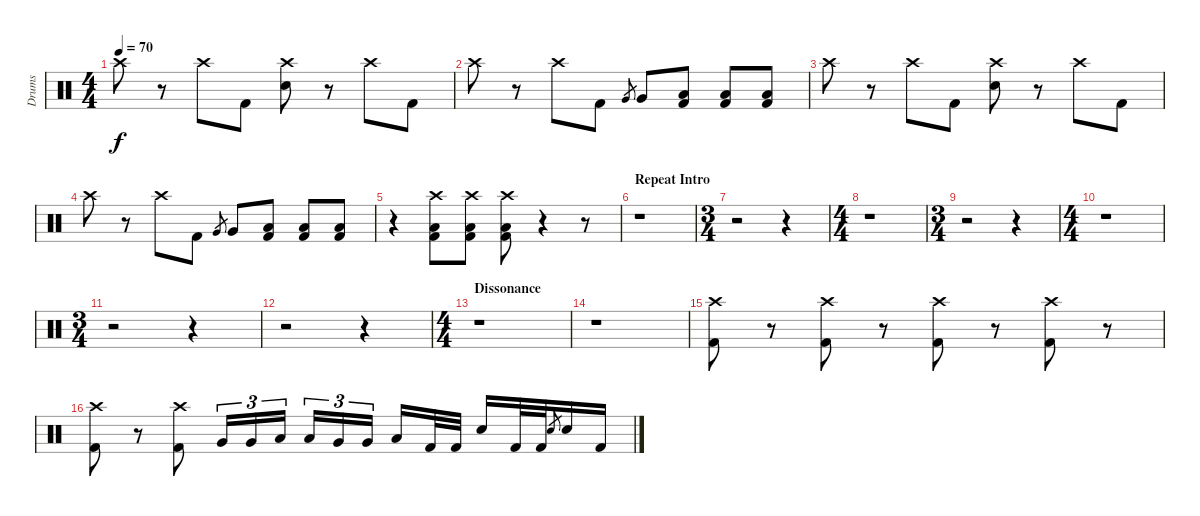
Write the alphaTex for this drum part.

\track ("Drums" "Drums") {instrument percussion}
\staff {score}
\articulation defaults
\ts (4 4)
\tempo 70
\clef neutral
\ks c "Crash high (hit)".8{dy f}
r.8 "Crash high (hit)".8 "Kick (hit) 2".8 ("Crash high (hit)" "Electric Snare (hit)").8 r.8 "Crash high (hit)".8 "Kick (hit) 2".8 |
"Crash high (hit)".8 r.8 "Crash high (hit)".8 "Kick (hit) 2".8 "Very Low Tom (hit)".8{gr} "Very Low Tom (hit)".8 ("Low Floor Tom (hit)" "Kick (hit) 2").8 ("Low Floor Tom (hit)" "Kick (hit) 2").8 ("Low Floor Tom (hit)" "Kick (hit) 2").8 |
"Crash high (hit)".8 r.8 "Crash high (hit)".8 "Kick (hit) 2".8 ("Crash high (hit)" "Electric Snare (hit)").8 r.8 "Crash high (hit)".8 "Kick (hit) 2".8 |
"Crash high (hit)".8 r.8 "Crash high (hit)".8 "Kick (hit) 2".8 "Very Low Tom (hit)".8{gr} "Very Low Tom (hit)".8 ("Low Floor Tom (hit)" "Kick (hit) 2").8 ("Low Floor Tom (hit)" "Kick (hit) 2").8 ("Low Floor Tom (hit)" "Kick (hit) 2").8 |
r.4 ("Crash high (hit)" "Low Floor Tom (hit)" "Kick (hit) 2").8 ("Crash high (hit)" "Low Floor Tom (hit)" "Kick (hit) 2").8 ("Crash high (hit)" "Low Floor Tom (hit)" "Kick (hit) 2").8 r.4 r.8 |
\section ("" "Repeat Intro")
r.1 |
\ts (3 4)
r.2 r.4 |
\ts (4 4)
r.1 |
\ts (3 4)
r.2 r.4 |
\ts (4 4)
r.1 |
\ts (3 4)
r.2 r.4 |
r.2 r.4 |
\ts (4 4)
\section ("" "Dissonance")
r.1 |
r.1 |
("Crash high (hit)" "Kick (hit) 2").8 r.8 ("Crash high (hit)" "Kick (hit) 2").8 r.8 ("Crash high (hit)" "Kick (hit) 2").8 r.8 ("Crash high (hit)" "Kick (hit) 2").8 r.8 |
("Crash high (hit)" "Kick (hit) 2").8 r.8 ("Crash high (hit)" "Kick (hit) 2").8 "Very Low Tom (hit)".16{tu (3 2)} "Very Low Tom (hit)".16{tu (3 2)} "Low Floor Tom (hit)".16{tu (3 2)} "Low Floor Tom (hit)".16{tu (3 2)} "Very Low Tom (hit)".16{tu (3 2)} "Very Low Tom (hit)".16{tu (3 2)} "Low Tom (hit)".16 "Kick (hit) 2".32 "Kick (hit) 2".32 "Electric Snare (hit)".16 "Kick (hit) 2".32 "Kick (hit) 2".32 "Electric Snare (hit)".8{gr} "Electric Snare (hit)".16 "Kick (hit) 2".16
